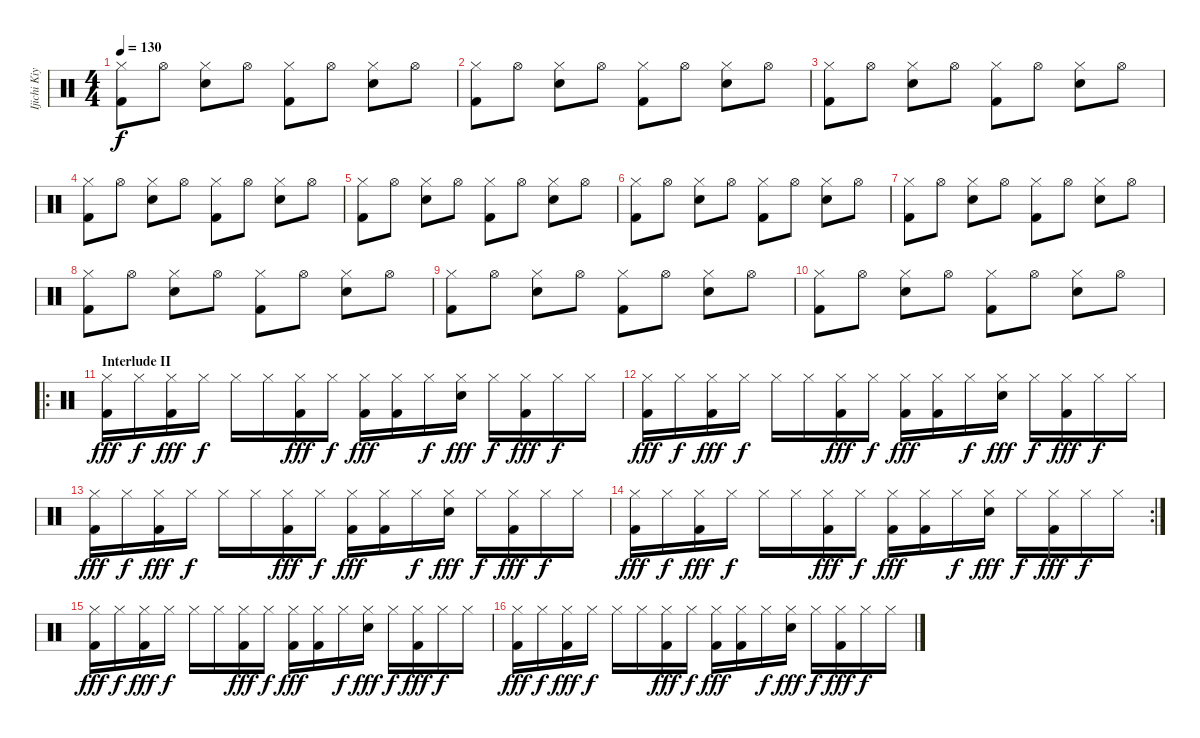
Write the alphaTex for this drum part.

\track ("Ijichi Kiyoshi (Drums)" "Ijichi Kiy") {instrument percussion}
\staff {score}
\articulation defaults
\ts (4 4)
\tempo 130
\clef neutral
\ks c
("Hi-Hat (closed)" "Kick (hit) 2").8{dy f} "Hi-Hat (open)".8 ("Hi-Hat (closed)" "Snare (hit) 2").8 "Hi-Hat (open)".8 ("Hi-Hat (closed)" "Kick (hit) 2").8 "Hi-Hat (open)".8 ("Hi-Hat (closed)" "Snare (hit) 2").8 "Hi-Hat (open)".8 |
("Hi-Hat (closed)" "Kick (hit) 2").8 "Hi-Hat (open)".8 ("Hi-Hat (closed)" "Snare (hit) 2").8 "Hi-Hat (open)".8 ("Hi-Hat (closed)" "Kick (hit) 2").8 "Hi-Hat (open)".8 ("Hi-Hat (closed)" "Snare (hit) 2").8 "Hi-Hat (open)".8 |
("Hi-Hat (closed)" "Kick (hit) 2").8 "Hi-Hat (open)".8 ("Hi-Hat (closed)" "Snare (hit) 2").8 "Hi-Hat (open)".8 ("Hi-Hat (closed)" "Kick (hit) 2").8 "Hi-Hat (open)".8 ("Hi-Hat (closed)" "Snare (hit) 2").8 "Hi-Hat (open)".8 |
("Hi-Hat (closed)" "Kick (hit) 2").8 "Hi-Hat (open)".8 ("Hi-Hat (closed)" "Snare (hit) 2").8 "Hi-Hat (open)".8 ("Hi-Hat (closed)" "Kick (hit) 2").8 "Hi-Hat (open)".8 ("Hi-Hat (closed)" "Snare (hit) 2").8 "Hi-Hat (open)".8 |
("Hi-Hat (closed)" "Kick (hit) 2").8 "Hi-Hat (open)".8 ("Hi-Hat (closed)" "Snare (hit) 2").8 "Hi-Hat (open)".8 ("Hi-Hat (closed)" "Kick (hit) 2").8 "Hi-Hat (open)".8 ("Hi-Hat (closed)" "Snare (hit) 2").8 "Hi-Hat (open)".8 |
("Hi-Hat (closed)" "Kick (hit) 2").8 "Hi-Hat (open)".8 ("Hi-Hat (closed)" "Snare (hit) 2").8 "Hi-Hat (open)".8 ("Hi-Hat (closed)" "Kick (hit) 2").8 "Hi-Hat (open)".8 ("Hi-Hat (closed)" "Snare (hit) 2").8 "Hi-Hat (open)".8 |
("Hi-Hat (closed)" "Kick (hit) 2").8 "Hi-Hat (open)".8 ("Hi-Hat (closed)" "Snare (hit) 2").8 "Hi-Hat (open)".8 ("Hi-Hat (closed)" "Kick (hit) 2").8 "Hi-Hat (open)".8 ("Hi-Hat (closed)" "Snare (hit) 2").8 "Hi-Hat (open)".8 |
("Hi-Hat (closed)" "Kick (hit) 2").8 "Hi-Hat (open)".8 ("Hi-Hat (closed)" "Snare (hit) 2").8 "Hi-Hat (open)".8 ("Hi-Hat (closed)" "Kick (hit) 2").8 "Hi-Hat (open)".8 ("Hi-Hat (closed)" "Snare (hit) 2").8 "Hi-Hat (open)".8 |
("Hi-Hat (closed)" "Kick (hit) 2").8 "Hi-Hat (open)".8 ("Hi-Hat (closed)" "Snare (hit) 2").8 "Hi-Hat (open)".8 ("Hi-Hat (closed)" "Kick (hit) 2").8 "Hi-Hat (open)".8 ("Hi-Hat (closed)" "Snare (hit) 2").8 "Hi-Hat (open)".8 |
("Hi-Hat (closed)" "Kick (hit) 2").8 "Hi-Hat (open)".8 ("Hi-Hat (closed)" "Snare (hit) 2").8 "Hi-Hat (open)".8 ("Hi-Hat (closed)" "Kick (hit) 2").8 "Hi-Hat (open)".8 ("Hi-Hat (closed)" "Snare (hit) 2").8 "Hi-Hat (open)".8 |
\ro
\section ("" "Interlude II")
("Hi-Hat (closed)" "Kick (hit) 2").16{dy fff} "Hi-Hat (closed)".16{dy f} ("Hi-Hat (closed)" "Kick (hit) 2").16{dy fff} "Hi-Hat (closed)".16{dy f} "Hi-Hat (closed)".16 "Hi-Hat (closed)".16 ("Hi-Hat (closed)" "Kick (hit) 2").16{dy fff} "Hi-Hat (closed)".16{dy f} ("Hi-Hat (closed)" "Kick (hit) 2").16{dy fff} ("Hi-Hat (closed)" "Kick (hit) 2").16 "Hi-Hat (closed)".16{dy f} ("Hi-Hat (closed)" "Snare (hit) 2").16{dy fff} "Hi-Hat (closed)".16{dy f} ("Hi-Hat (closed)" "Kick (hit) 2").16{dy fff} "Hi-Hat (closed)".16{dy f} "Hi-Hat (closed)".16 |
("Hi-Hat (closed)" "Kick (hit) 2").16{dy fff} "Hi-Hat (closed)".16{dy f} ("Hi-Hat (closed)" "Kick (hit) 2").16{dy fff} "Hi-Hat (closed)".16{dy f} "Hi-Hat (closed)".16 "Hi-Hat (closed)".16 ("Hi-Hat (closed)" "Kick (hit) 2").16{dy fff} "Hi-Hat (closed)".16{dy f} ("Hi-Hat (closed)" "Kick (hit) 2").16{dy fff} ("Hi-Hat (closed)" "Kick (hit) 2").16 "Hi-Hat (closed)".16{dy f} ("Hi-Hat (closed)" "Snare (hit) 2").16{dy fff} "Hi-Hat (closed)".16{dy f} ("Hi-Hat (closed)" "Kick (hit) 2").16{dy fff} "Hi-Hat (closed)".16{dy f} "Hi-Hat (closed)".16 |
("Hi-Hat (closed)" "Kick (hit) 2").16{dy fff} "Hi-Hat (closed)".16{dy f} ("Hi-Hat (closed)" "Kick (hit) 2").16{dy fff} "Hi-Hat (closed)".16{dy f} "Hi-Hat (closed)".16 "Hi-Hat (closed)".16 ("Hi-Hat (closed)" "Kick (hit) 2").16{dy fff} "Hi-Hat (closed)".16{dy f} ("Hi-Hat (closed)" "Kick (hit) 2").16{dy fff} ("Hi-Hat (closed)" "Kick (hit) 2").16 "Hi-Hat (closed)".16{dy f} ("Hi-Hat (closed)" "Snare (hit) 2").16{dy fff} "Hi-Hat (closed)".16{dy f} ("Hi-Hat (closed)" "Kick (hit) 2").16{dy fff} "Hi-Hat (closed)".16{dy f} "Hi-Hat (closed)".16 |
\rc 2
("Hi-Hat (closed)" "Kick (hit) 2").16{dy fff} "Hi-Hat (closed)".16{dy f} ("Hi-Hat (closed)" "Kick (hit) 2").16{dy fff} "Hi-Hat (closed)".16{dy f} "Hi-Hat (closed)".16 "Hi-Hat (closed)".16 ("Hi-Hat (closed)" "Kick (hit) 2").16{dy fff} "Hi-Hat (closed)".16{dy f} ("Hi-Hat (closed)" "Kick (hit) 2").16{dy fff} ("Hi-Hat (closed)" "Kick (hit) 2").16 "Hi-Hat (closed)".16{dy f} ("Hi-Hat (closed)" "Snare (hit) 2").16{dy fff} "Hi-Hat (closed)".16{dy f} ("Hi-Hat (closed)" "Kick (hit) 2").16{dy fff} "Hi-Hat (closed)".16{dy f} "Hi-Hat (closed)".16 |
("Hi-Hat (closed)" "Kick (hit) 2").16{dy fff} "Hi-Hat (closed)".16{dy f} ("Hi-Hat (closed)" "Kick (hit) 2").16{dy fff} "Hi-Hat (closed)".16{dy f} "Hi-Hat (closed)".16 "Hi-Hat (closed)".16 ("Hi-Hat (closed)" "Kick (hit) 2").16{dy fff} "Hi-Hat (closed)".16{dy f} ("Hi-Hat (closed)" "Kick (hit) 2").16{dy fff} ("Hi-Hat (closed)" "Kick (hit) 2").16 "Hi-Hat (closed)".16{dy f} ("Hi-Hat (closed)" "Snare (hit) 2").16{dy fff} "Hi-Hat (closed)".16{dy f} ("Hi-Hat (closed)" "Kick (hit) 2").16{dy fff} "Hi-Hat (closed)".16{dy f} "Hi-Hat (closed)".16 |
("Hi-Hat (closed)" "Kick (hit) 2").16{dy fff} "Hi-Hat (closed)".16{dy f} ("Hi-Hat (closed)" "Kick (hit) 2").16{dy fff} "Hi-Hat (closed)".16{dy f} "Hi-Hat (closed)".16 "Hi-Hat (closed)".16 ("Hi-Hat (closed)" "Kick (hit) 2").16{dy fff} "Hi-Hat (closed)".16{dy f} ("Hi-Hat (closed)" "Kick (hit) 2").16{dy fff} ("Hi-Hat (closed)" "Kick (hit) 2").16 "Hi-Hat (closed)".16{dy f} ("Hi-Hat (closed)" "Snare (hit) 2").16{dy fff} "Hi-Hat (closed)".16{dy f} ("Hi-Hat (closed)" "Kick (hit) 2").16{dy fff} "Hi-Hat (closed)".16{dy f} "Hi-Hat (closed)".16
